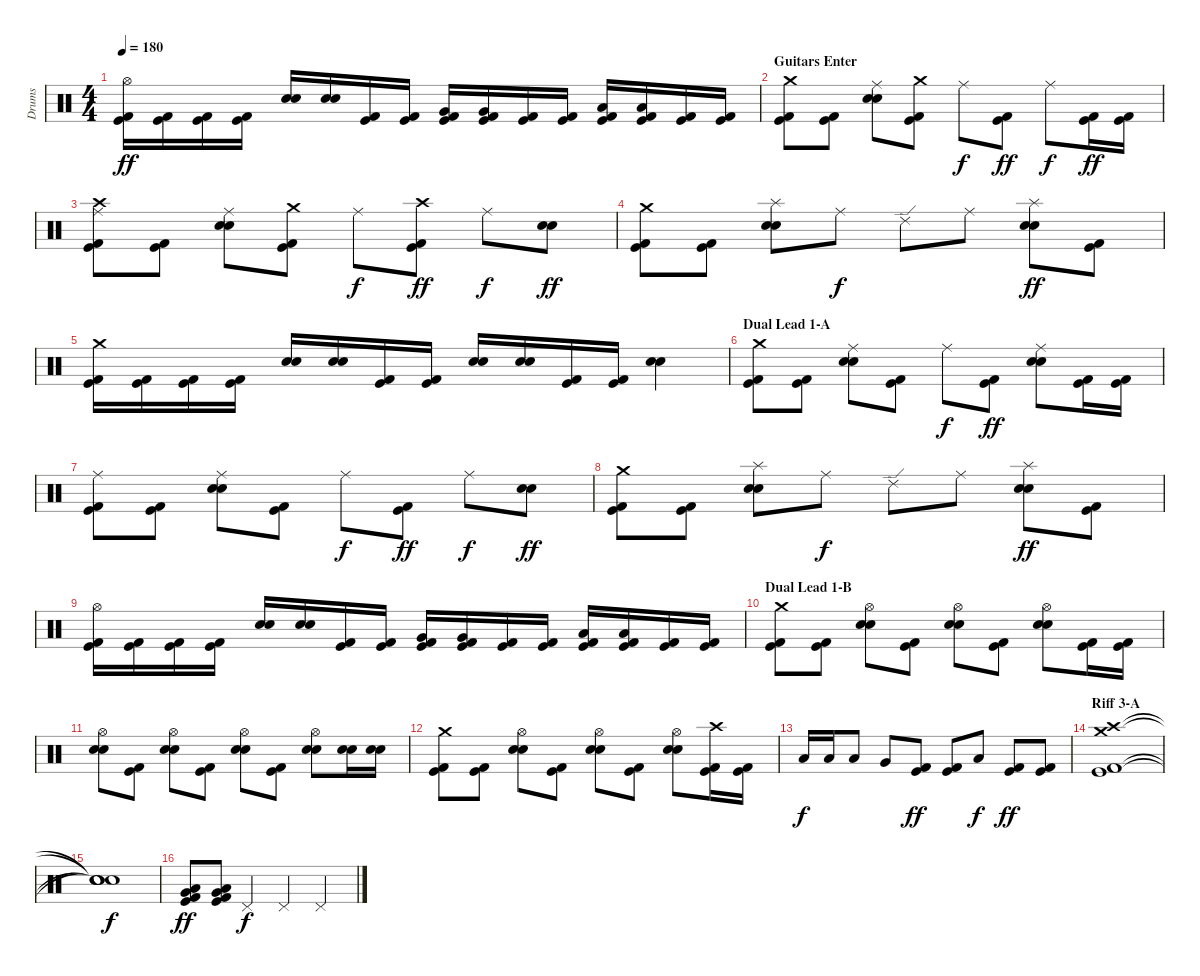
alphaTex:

\track ("Drums" "Drums") {instrument percussion}
\staff {score}
\articulation defaults
\ts (4 4)
\tempo 180
\clef neutral
\ks c
("Kick (hit)" "Kick (hit) 2" "Hi-Hat (open)").16{dy ff} ("Kick (hit)" "Kick (hit) 2").16 ("Kick (hit)" "Kick (hit) 2").16 ("Kick (hit)" "Kick (hit) 2").16 ("Electric Snare (hit)" "Electric Snare (hit)").16 ("Electric Snare (hit)" "Electric Snare (hit)").16 ("Kick (hit)" "Kick (hit) 2").16 ("Kick (hit)" "Kick (hit) 2").16 ("Kick (hit)" "Kick (hit) 2" "Very Low Tom (hit)").16 ("Kick (hit)" "Kick (hit) 2" "Very Low Tom (hit)").16 ("Kick (hit)" "Kick (hit) 2").16 ("Kick (hit)" "Kick (hit) 2").16 ("Kick (hit)" "Kick (hit) 2" "Low Floor Tom (hit)").16 ("Kick (hit)" "Kick (hit) 2" "Low Floor Tom (hit)").16 ("Kick (hit)" "Kick (hit) 2").16 ("Kick (hit)" "Kick (hit) 2").16 |
\section ("" "Guitars Enter")
("Kick (hit)" "Kick (hit) 2" "Crash medium (hit)").8 ("Kick (hit)" "Kick (hit) 2").8 ("Electric Snare (hit)" "Electric Snare (hit)" "Ride (middle)").8 ("Kick (hit)" "Kick (hit) 2" "Crash medium (hit)").8 "Ride (middle)".8{dy f} ("Kick (hit)" "Kick (hit) 2").8{dy ff} "Ride (middle)".8{dy f} ("Kick (hit)" "Kick (hit) 2").16{dy ff} ("Kick (hit)" "Kick (hit) 2").16 |
("Kick (hit)" "Kick (hit) 2" "Ride (middle)" "Crash high (hit)").8 ("Kick (hit)" "Kick (hit) 2").8 ("Electric Snare (hit)" "Electric Snare (hit)" "Ride (middle)").8 ("Kick (hit)" "Kick (hit) 2" "Crash medium (hit)").8 "Ride (middle)".8{dy f} ("Kick (hit)" "Kick (hit) 2" "Crash high (hit)").8{dy ff} "Ride (middle)".8{dy f} ("Electric Snare (hit)" "Electric Snare (hit)").8{dy ff} |
("Kick (hit)" "Kick (hit) 2" "Crash medium (hit)").8 ("Kick (hit)" "Kick (hit) 2").8 ("Electric Snare (hit)" "Electric Snare (hit)" "Splash (hit)").8 "Ride (middle)".8{dy f} "Ride (edge) 2".8 "Ride (middle)".8 ("Electric Snare (hit)" "Electric Snare (hit)" "Splash (hit)").8{dy ff} ("Kick (hit)" "Kick (hit) 2").8 |
("Kick (hit)" "Kick (hit) 2" "Crash medium (hit)").16 ("Kick (hit)" "Kick (hit) 2").16 ("Kick (hit)" "Kick (hit) 2").16 ("Kick (hit)" "Kick (hit) 2").16 ("Electric Snare (hit)" "Electric Snare (hit)").16 ("Electric Snare (hit)" "Electric Snare (hit)").16 ("Kick (hit)" "Kick (hit) 2").16 ("Kick (hit)" "Kick (hit) 2").16 ("Electric Snare (hit)" "Electric Snare (hit)").16 ("Electric Snare (hit)" "Electric Snare (hit)").16 ("Kick (hit)" "Kick (hit) 2").16 ("Kick (hit)" "Kick (hit) 2").16 ("Electric Snare (hit)" "Electric Snare (hit)").4 |
\section ("" "Dual Lead 1-A")
("Kick (hit)" "Kick (hit) 2" "Crash medium (hit)").8 ("Kick (hit)" "Kick (hit) 2").8 ("Electric Snare (hit)" "Electric Snare (hit)" "Ride (middle)").8 ("Kick (hit)" "Kick (hit) 2").8 "Ride (middle)".8{dy f} ("Kick (hit)" "Kick (hit) 2").8{dy ff} ("Electric Snare (hit)" "Electric Snare (hit)" "Ride (middle)").8 ("Kick (hit)" "Kick (hit) 2").16 ("Kick (hit)" "Kick (hit) 2").16 |
("Kick (hit)" "Kick (hit) 2" "Ride (middle)").8 ("Kick (hit)" "Kick (hit) 2").8 ("Electric Snare (hit)" "Electric Snare (hit)" "Ride (middle)").8 ("Kick (hit)" "Kick (hit) 2").8 "Ride (middle)".8{dy f} ("Kick (hit)" "Kick (hit) 2").8{dy ff} "Ride (middle)".8{dy f} ("Electric Snare (hit)" "Electric Snare (hit)").8{dy ff} |
("Kick (hit)" "Kick (hit) 2" "Crash medium (hit)").8 ("Kick (hit)" "Kick (hit) 2").8 ("Electric Snare (hit)" "Electric Snare (hit)" "Splash (hit)").8 "Ride (middle)".8{dy f} "Ride (edge) 2".8 "Ride (middle)".8 ("Electric Snare (hit)" "Electric Snare (hit)" "Splash (hit)").8{dy ff} ("Kick (hit)" "Kick (hit) 2").8 |
("Kick (hit)" "Kick (hit) 2" "Hi-Hat (open)").16 ("Kick (hit)" "Kick (hit) 2").16 ("Kick (hit)" "Kick (hit) 2").16 ("Kick (hit)" "Kick (hit) 2").16 ("Electric Snare (hit)" "Electric Snare (hit)").16 ("Electric Snare (hit)" "Electric Snare (hit)").16 ("Kick (hit)" "Kick (hit) 2").16 ("Kick (hit)" "Kick (hit) 2").16 ("Kick (hit)" "Kick (hit) 2" "Very Low Tom (hit)").16 ("Kick (hit)" "Kick (hit) 2" "Very Low Tom (hit)").16 ("Kick (hit)" "Kick (hit) 2").16 ("Kick (hit)" "Kick (hit) 2").16 ("Kick (hit)" "Kick (hit) 2" "Low Floor Tom (hit)").16 ("Kick (hit)" "Kick (hit) 2" "Low Floor Tom (hit)").16 ("Kick (hit)" "Kick (hit) 2").16 ("Kick (hit)" "Kick (hit) 2").16 |
\section ("" "Dual Lead 1-B")
("Kick (hit)" "Kick (hit) 2" "Crash medium (hit)").8 ("Kick (hit)" "Kick (hit) 2").8 ("Electric Snare (hit)" "Electric Snare (hit)" "Hi-Hat (open)").8 ("Kick (hit)" "Kick (hit) 2").8 ("Electric Snare (hit)" "Electric Snare (hit)" "Hi-Hat (open)").8 ("Kick (hit)" "Kick (hit) 2").8 ("Electric Snare (hit)" "Electric Snare (hit)" "Hi-Hat (open)").8 ("Kick (hit)" "Kick (hit) 2").16 ("Kick (hit)" "Kick (hit) 2").16 |
("Electric Snare (hit)" "Electric Snare (hit)" "Hi-Hat (open)").8 ("Kick (hit)" "Kick (hit) 2").8 ("Electric Snare (hit)" "Electric Snare (hit)" "Hi-Hat (open)").8 ("Kick (hit)" "Kick (hit) 2").8 ("Electric Snare (hit)" "Electric Snare (hit)" "Hi-Hat (open)").8 ("Kick (hit)" "Kick (hit) 2").8 ("Electric Snare (hit)" "Electric Snare (hit)" "Hi-Hat (open)").8 ("Electric Snare (hit)" "Electric Snare (hit)").16 ("Electric Snare (hit)" "Electric Snare (hit)").16 |
("Kick (hit)" "Kick (hit) 2" "Crash medium (hit)").8 ("Kick (hit)" "Kick (hit) 2").8 ("Electric Snare (hit)" "Electric Snare (hit)" "Hi-Hat (open)").8 ("Kick (hit)" "Kick (hit) 2").8 ("Electric Snare (hit)" "Electric Snare (hit)" "Hi-Hat (open)").8 ("Kick (hit)" "Kick (hit) 2").8 ("Electric Snare (hit)" "Electric Snare (hit)" "Hi-Hat (open)").8 ("Kick (hit)" "Kick (hit) 2" "Crash high (hit)").16 ("Kick (hit)" "Kick (hit) 2").16 |
"Low Tom (hit)".16{dy f} "Low Tom (hit)".16 "Low Tom (hit)".8 "Very Low Tom (hit)".8 ("Kick (hit)" "Kick (hit) 2").8{dy ff} ("Kick (hit)" "Kick (hit) 2").8 "Low Tom (hit)".8{dy f} ("Kick (hit)" "Kick (hit) 2").8{dy ff} ("Kick (hit)" "Kick (hit) 2").8 |
\section ("" "Riff 3-A")
("Kick (hit)" "Kick (hit) 2" "Crash high (hit)" "Crash medium (hit)").1 |
("Snare (hit)"{t} "Snare (hit)"{t} "Snare (hit)"{t} "Snare (hit)"{t}).1{dy f} |
("Kick (hit)" "Kick (hit) 2" "Low Floor Tom (hit)" "Very Low Tom (hit)").8{dy ff} ("Kick (hit)" "Kick (hit) 2" "Low Floor Tom (hit)" "Very Low Tom (hit)").8 "Pedal Hi-Hat (hit)".4{dy f} "Pedal Hi-Hat (hit)".4 "Pedal Hi-Hat (hit)".4
